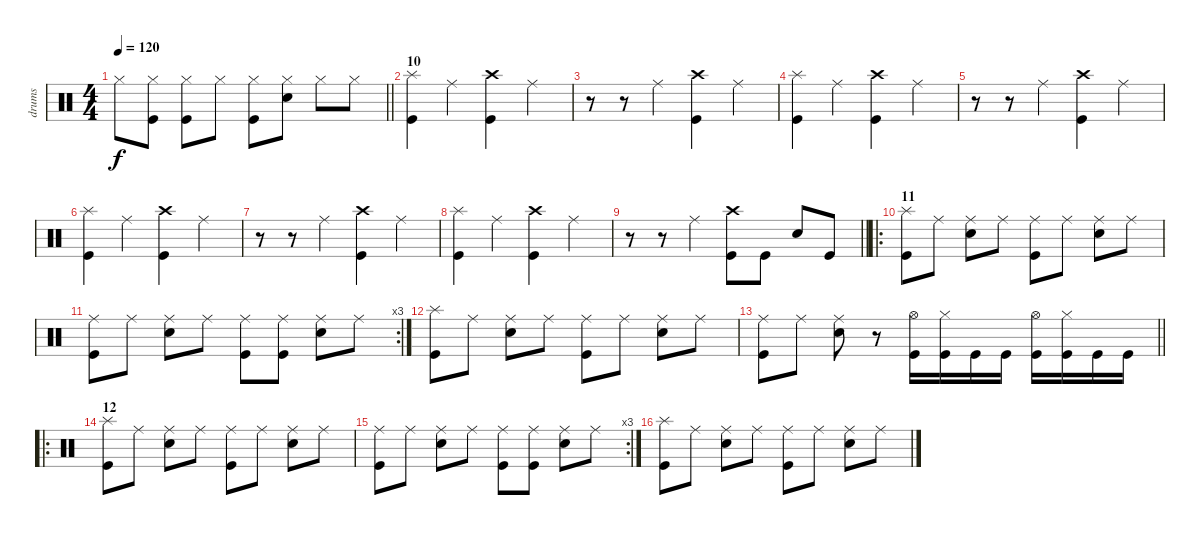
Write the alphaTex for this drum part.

\track ("drums" "drums") {instrument percussion}
\staff {score}
\articulation defaults
\ts (4 4)
\tempo 120
\clef neutral
\barLineRight lightlight
\ks c "Hi-Hat (closed)".8{dy f}
("Hi-Hat (closed)" "Kick (hit)").8 ("Hi-Hat (closed)" "Kick (hit)").8 "Hi-Hat (closed)".8 ("Hi-Hat (closed)" "Kick (hit)").8 ("Hi-Hat (closed)" "Electric Snare (hit)").8 "Hi-Hat (closed)".8 "Hi-Hat (closed)".8 |
\section ("" "10")
("Splash (hit)" "Kick (hit)").4 "Ride (middle)".4 ("Crash high (hit)" "Kick (hit)").4 "Ride (middle)".4 |
r.8 r.8 "Ride (middle)".4 ("Crash high (hit)" "Kick (hit)").4 "Ride (middle)".4 |
("Splash (hit)" "Kick (hit)").4 "Ride (middle)".4 ("Crash high (hit)" "Kick (hit)").4 "Ride (middle)".4 |
r.8 r.8 "Ride (middle)".4 ("Crash high (hit)" "Kick (hit)").4 "Ride (middle)".4 |
("Splash (hit)" "Kick (hit)").4 "Ride (middle)".4 ("Crash high (hit)" "Kick (hit)").4 "Ride (middle)".4 |
r.8 r.8 "Ride (middle)".4 ("Crash high (hit)" "Kick (hit)").4 "Ride (middle)".4 |
("Splash (hit)" "Kick (hit)").4 "Ride (middle)".4 ("Crash high (hit)" "Kick (hit)").4 "Ride (middle)".4 |
\barLineRight lightlight
r.8 r.8 "Ride (middle)".4 ("Crash high (hit)" "Kick (hit)").8 "Kick (hit)".8 "Electric Snare (hit)".8 "Kick (hit)".8 |
\ro
\section ("" "11")
("Splash (hit)" "Kick (hit)").8 "Ride (middle)".8 ("Ride (middle)" "Electric Snare (hit)").8 "Ride (middle)".8 ("Ride (middle)" "Kick (hit)").8 "Ride (middle)".8 ("Ride (middle)" "Electric Snare (hit)").8 "Ride (middle)".8 |
\rc 3
("Ride (middle)" "Kick (hit)").8 "Ride (middle)".8 ("Ride (middle)" "Electric Snare (hit)").8 "Ride (middle)".8 ("Ride (middle)" "Kick (hit)").8 ("Ride (middle)" "Kick (hit)").8 ("Ride (middle)" "Electric Snare (hit)").8 "Ride (middle)".8 |
("Splash (hit)" "Kick (hit)").8 "Ride (middle)".8 ("Ride (middle)" "Electric Snare (hit)").8 "Ride (middle)".8 ("Ride (middle)" "Kick (hit)").8 "Ride (middle)".8 ("Ride (middle)" "Electric Snare (hit)").8 "Ride (middle)".8 |
\barLineRight lightlight
("Ride (middle)" "Kick (hit)").8 "Ride (middle)".8 ("Ride (middle)" "Electric Snare (hit)").8 r.8 ("Hi-Hat (open)" "Kick (hit)").16 ("Hi-Hat (closed)" "Kick (hit)").16 "Kick (hit)".16 "Kick (hit)".16 ("Hi-Hat (open)" "Kick (hit)").16 ("Hi-Hat (closed)" "Kick (hit)").16 "Kick (hit)".16 "Kick (hit)".16 |
\ro
\section ("" "12")
("Splash (hit)" "Kick (hit)").8 "Ride (middle)".8 ("Ride (middle)" "Electric Snare (hit)").8 "Ride (middle)".8 ("Ride (middle)" "Kick (hit)").8 "Ride (middle)".8 ("Ride (middle)" "Electric Snare (hit)").8 "Ride (middle)".8 |
\rc 3
("Ride (middle)" "Kick (hit)").8 "Ride (middle)".8 ("Ride (middle)" "Electric Snare (hit)").8 "Ride (middle)".8 ("Ride (middle)" "Kick (hit)").8 ("Ride (middle)" "Kick (hit)").8 ("Ride (middle)" "Electric Snare (hit)").8 "Ride (middle)".8 |
("Splash (hit)" "Kick (hit)").8 "Ride (middle)".8 ("Ride (middle)" "Electric Snare (hit)").8 "Ride (middle)".8 ("Ride (middle)" "Kick (hit)").8 "Ride (middle)".8 ("Ride (middle)" "Electric Snare (hit)").8 "Ride (middle)".8
